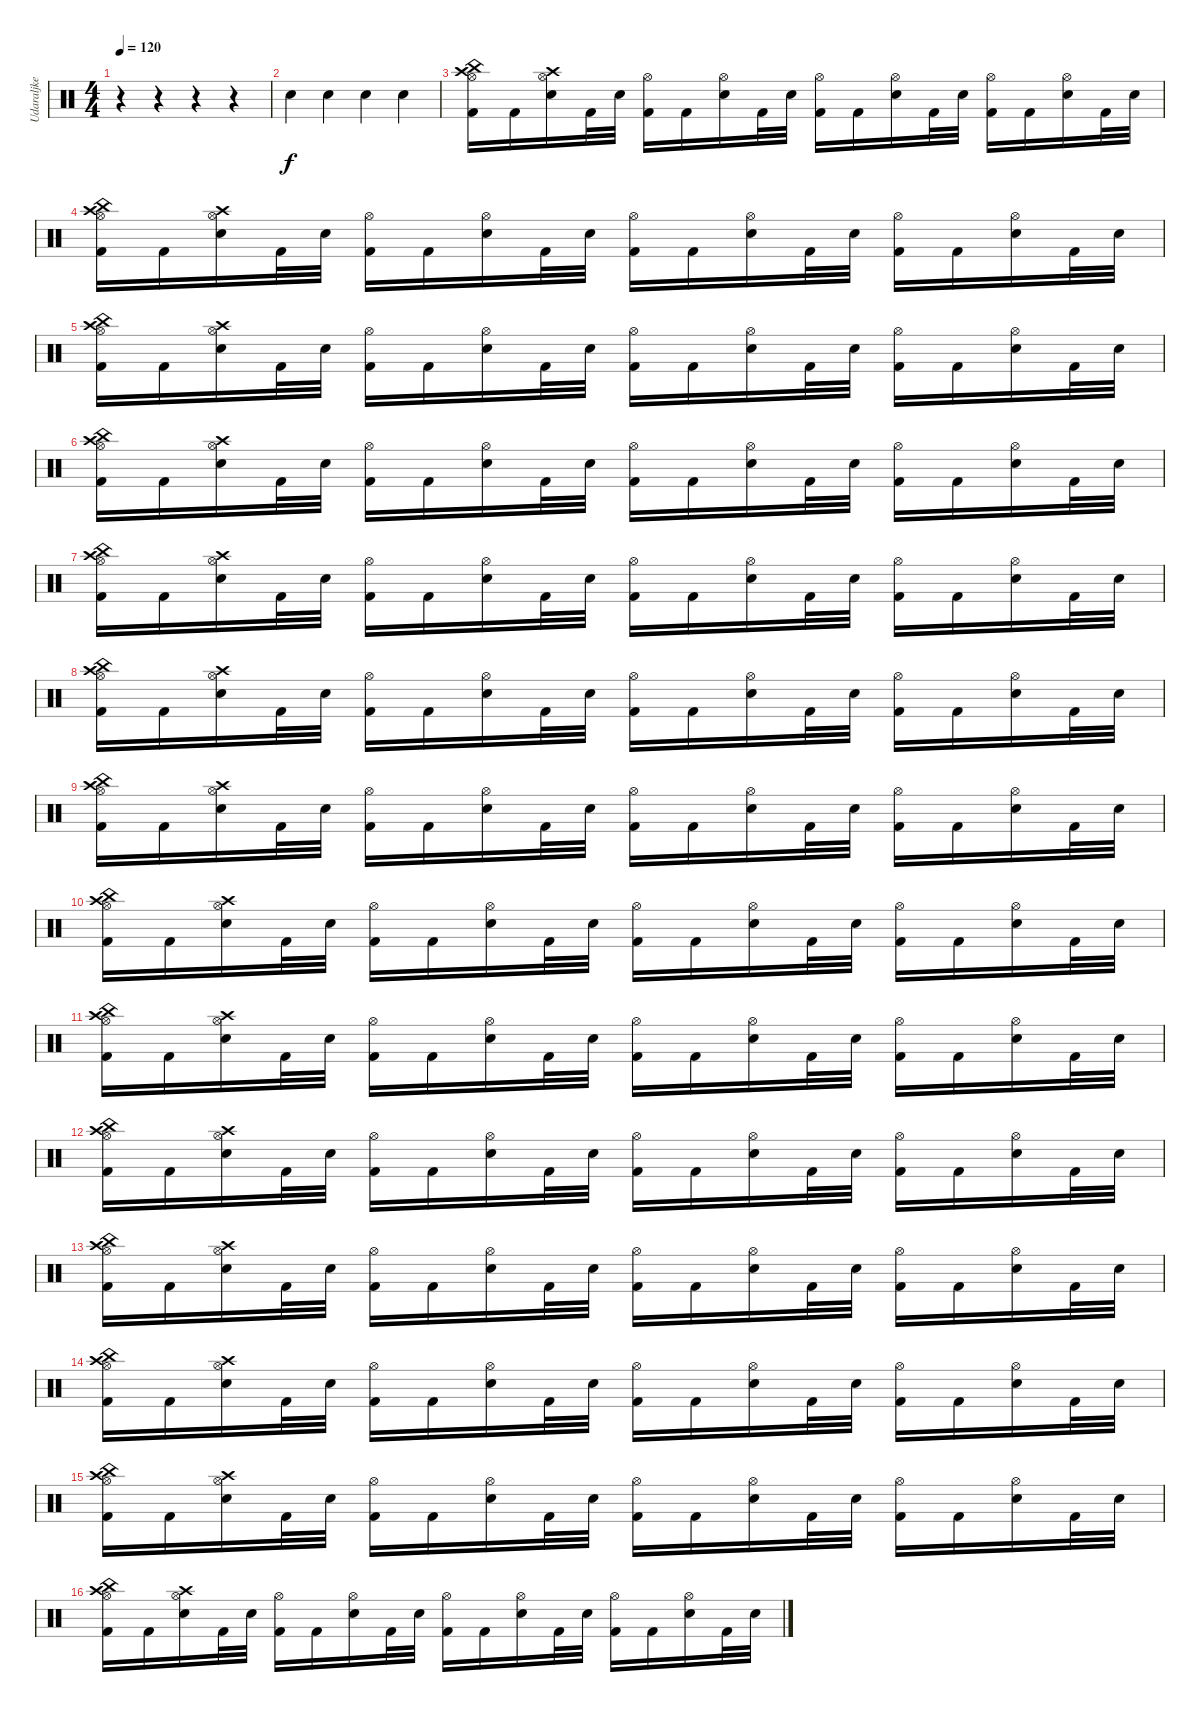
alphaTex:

\track ("Udaraljke" "Udaraljke") {instrument percussion}
\staff {score}
\articulation defaults
\ts (4 4)
\tempo 120
\clef neutral
\ks c
r.4{dy f} r.4 r.4 r.4 |
"Electric Snare (hit)".4 "Electric Snare (hit)".4 "Electric Snare (hit)".4 "Electric Snare (hit)".4 |
("China (hit)" "Crash high (hit)" "Hi-Hat (open)" "Kick (hit) 2").16 "Kick (hit) 2".16 ("Crash high (hit)" "Hi-Hat (open)" "Electric Snare (hit)").16 "Kick (hit) 2".32 "Electric Snare (hit)".32 ("Hi-Hat (open)" "Kick (hit) 2").16 "Kick (hit) 2".16 ("Hi-Hat (open)" "Electric Snare (hit)").16 "Kick (hit) 2".32 "Electric Snare (hit)".32 ("Hi-Hat (open)" "Kick (hit) 2").16 "Kick (hit) 2".16 ("Hi-Hat (open)" "Electric Snare (hit)").16 "Kick (hit) 2".32 "Electric Snare (hit)".32 ("Hi-Hat (open)" "Kick (hit) 2").16 "Kick (hit) 2".16 ("Hi-Hat (open)" "Electric Snare (hit)").16 "Kick (hit) 2".32 "Electric Snare (hit)".32 |
("China (hit)" "Crash high (hit)" "Hi-Hat (open)" "Kick (hit) 2").16 "Kick (hit) 2".16 ("Crash high (hit)" "Hi-Hat (open)" "Electric Snare (hit)").16 "Kick (hit) 2".32 "Electric Snare (hit)".32 ("Hi-Hat (open)" "Kick (hit) 2").16 "Kick (hit) 2".16 ("Hi-Hat (open)" "Electric Snare (hit)").16 "Kick (hit) 2".32 "Electric Snare (hit)".32 ("Hi-Hat (open)" "Kick (hit) 2").16 "Kick (hit) 2".16 ("Hi-Hat (open)" "Electric Snare (hit)").16 "Kick (hit) 2".32 "Electric Snare (hit)".32 ("Hi-Hat (open)" "Kick (hit) 2").16 "Kick (hit) 2".16 ("Hi-Hat (open)" "Electric Snare (hit)").16 "Kick (hit) 2".32 "Electric Snare (hit)".32 |
("China (hit)" "Crash high (hit)" "Hi-Hat (open)" "Kick (hit) 2").16 "Kick (hit) 2".16 ("Crash high (hit)" "Hi-Hat (open)" "Electric Snare (hit)").16 "Kick (hit) 2".32 "Electric Snare (hit)".32 ("Hi-Hat (open)" "Kick (hit) 2").16 "Kick (hit) 2".16 ("Hi-Hat (open)" "Electric Snare (hit)").16 "Kick (hit) 2".32 "Electric Snare (hit)".32 ("Hi-Hat (open)" "Kick (hit) 2").16 "Kick (hit) 2".16 ("Hi-Hat (open)" "Electric Snare (hit)").16 "Kick (hit) 2".32 "Electric Snare (hit)".32 ("Hi-Hat (open)" "Kick (hit) 2").16 "Kick (hit) 2".16 ("Hi-Hat (open)" "Electric Snare (hit)").16 "Kick (hit) 2".32 "Electric Snare (hit)".32 |
("China (hit)" "Crash high (hit)" "Hi-Hat (open)" "Kick (hit) 2").16 "Kick (hit) 2".16 ("Crash high (hit)" "Hi-Hat (open)" "Electric Snare (hit)").16 "Kick (hit) 2".32 "Electric Snare (hit)".32 ("Hi-Hat (open)" "Kick (hit) 2").16 "Kick (hit) 2".16 ("Hi-Hat (open)" "Electric Snare (hit)").16 "Kick (hit) 2".32 "Electric Snare (hit)".32 ("Hi-Hat (open)" "Kick (hit) 2").16 "Kick (hit) 2".16 ("Hi-Hat (open)" "Electric Snare (hit)").16 "Kick (hit) 2".32 "Electric Snare (hit)".32 ("Hi-Hat (open)" "Kick (hit) 2").16 "Kick (hit) 2".16 ("Hi-Hat (open)" "Electric Snare (hit)").16 "Kick (hit) 2".32 "Electric Snare (hit)".32 |
("China (hit)" "Crash high (hit)" "Hi-Hat (open)" "Kick (hit) 2").16 "Kick (hit) 2".16 ("Crash high (hit)" "Hi-Hat (open)" "Electric Snare (hit)").16 "Kick (hit) 2".32 "Electric Snare (hit)".32 ("Hi-Hat (open)" "Kick (hit) 2").16 "Kick (hit) 2".16 ("Hi-Hat (open)" "Electric Snare (hit)").16 "Kick (hit) 2".32 "Electric Snare (hit)".32 ("Hi-Hat (open)" "Kick (hit) 2").16 "Kick (hit) 2".16 ("Hi-Hat (open)" "Electric Snare (hit)").16 "Kick (hit) 2".32 "Electric Snare (hit)".32 ("Hi-Hat (open)" "Kick (hit) 2").16 "Kick (hit) 2".16 ("Hi-Hat (open)" "Electric Snare (hit)").16 "Kick (hit) 2".32 "Electric Snare (hit)".32 |
("China (hit)" "Crash high (hit)" "Hi-Hat (open)" "Kick (hit) 2").16 "Kick (hit) 2".16 ("Crash high (hit)" "Hi-Hat (open)" "Electric Snare (hit)").16 "Kick (hit) 2".32 "Electric Snare (hit)".32 ("Hi-Hat (open)" "Kick (hit) 2").16 "Kick (hit) 2".16 ("Hi-Hat (open)" "Electric Snare (hit)").16 "Kick (hit) 2".32 "Electric Snare (hit)".32 ("Hi-Hat (open)" "Kick (hit) 2").16 "Kick (hit) 2".16 ("Hi-Hat (open)" "Electric Snare (hit)").16 "Kick (hit) 2".32 "Electric Snare (hit)".32 ("Hi-Hat (open)" "Kick (hit) 2").16 "Kick (hit) 2".16 ("Hi-Hat (open)" "Electric Snare (hit)").16 "Kick (hit) 2".32 "Electric Snare (hit)".32 |
("China (hit)" "Crash high (hit)" "Hi-Hat (open)" "Kick (hit) 2").16 "Kick (hit) 2".16 ("Crash high (hit)" "Hi-Hat (open)" "Electric Snare (hit)").16 "Kick (hit) 2".32 "Electric Snare (hit)".32 ("Hi-Hat (open)" "Kick (hit) 2").16 "Kick (hit) 2".16 ("Hi-Hat (open)" "Electric Snare (hit)").16 "Kick (hit) 2".32 "Electric Snare (hit)".32 ("Hi-Hat (open)" "Kick (hit) 2").16 "Kick (hit) 2".16 ("Hi-Hat (open)" "Electric Snare (hit)").16 "Kick (hit) 2".32 "Electric Snare (hit)".32 ("Hi-Hat (open)" "Kick (hit) 2").16 "Kick (hit) 2".16 ("Hi-Hat (open)" "Electric Snare (hit)").16 "Kick (hit) 2".32 "Electric Snare (hit)".32 |
("China (hit)" "Crash high (hit)" "Hi-Hat (open)" "Kick (hit) 2").16 "Kick (hit) 2".16 ("Crash high (hit)" "Hi-Hat (open)" "Electric Snare (hit)").16 "Kick (hit) 2".32 "Electric Snare (hit)".32 ("Hi-Hat (open)" "Kick (hit) 2").16 "Kick (hit) 2".16 ("Hi-Hat (open)" "Electric Snare (hit)").16 "Kick (hit) 2".32 "Electric Snare (hit)".32 ("Hi-Hat (open)" "Kick (hit) 2").16 "Kick (hit) 2".16 ("Hi-Hat (open)" "Electric Snare (hit)").16 "Kick (hit) 2".32 "Electric Snare (hit)".32 ("Hi-Hat (open)" "Kick (hit) 2").16 "Kick (hit) 2".16 ("Hi-Hat (open)" "Electric Snare (hit)").16 "Kick (hit) 2".32 "Electric Snare (hit)".32 |
("China (hit)" "Crash high (hit)" "Hi-Hat (open)" "Kick (hit) 2").16 "Kick (hit) 2".16 ("Crash high (hit)" "Hi-Hat (open)" "Electric Snare (hit)").16 "Kick (hit) 2".32 "Electric Snare (hit)".32 ("Hi-Hat (open)" "Kick (hit) 2").16 "Kick (hit) 2".16 ("Hi-Hat (open)" "Electric Snare (hit)").16 "Kick (hit) 2".32 "Electric Snare (hit)".32 ("Hi-Hat (open)" "Kick (hit) 2").16 "Kick (hit) 2".16 ("Hi-Hat (open)" "Electric Snare (hit)").16 "Kick (hit) 2".32 "Electric Snare (hit)".32 ("Hi-Hat (open)" "Kick (hit) 2").16 "Kick (hit) 2".16 ("Hi-Hat (open)" "Electric Snare (hit)").16 "Kick (hit) 2".32 "Electric Snare (hit)".32 |
("China (hit)" "Crash high (hit)" "Hi-Hat (open)" "Kick (hit) 2").16 "Kick (hit) 2".16 ("Crash high (hit)" "Hi-Hat (open)" "Electric Snare (hit)").16 "Kick (hit) 2".32 "Electric Snare (hit)".32 ("Hi-Hat (open)" "Kick (hit) 2").16 "Kick (hit) 2".16 ("Hi-Hat (open)" "Electric Snare (hit)").16 "Kick (hit) 2".32 "Electric Snare (hit)".32 ("Hi-Hat (open)" "Kick (hit) 2").16 "Kick (hit) 2".16 ("Hi-Hat (open)" "Electric Snare (hit)").16 "Kick (hit) 2".32 "Electric Snare (hit)".32 ("Hi-Hat (open)" "Kick (hit) 2").16 "Kick (hit) 2".16 ("Hi-Hat (open)" "Electric Snare (hit)").16 "Kick (hit) 2".32 "Electric Snare (hit)".32 |
("China (hit)" "Crash high (hit)" "Hi-Hat (open)" "Kick (hit) 2").16 "Kick (hit) 2".16 ("Crash high (hit)" "Hi-Hat (open)" "Electric Snare (hit)").16 "Kick (hit) 2".32 "Electric Snare (hit)".32 ("Hi-Hat (open)" "Kick (hit) 2").16 "Kick (hit) 2".16 ("Hi-Hat (open)" "Electric Snare (hit)").16 "Kick (hit) 2".32 "Electric Snare (hit)".32 ("Hi-Hat (open)" "Kick (hit) 2").16 "Kick (hit) 2".16 ("Hi-Hat (open)" "Electric Snare (hit)").16 "Kick (hit) 2".32 "Electric Snare (hit)".32 ("Hi-Hat (open)" "Kick (hit) 2").16 "Kick (hit) 2".16 ("Hi-Hat (open)" "Electric Snare (hit)").16 "Kick (hit) 2".32 "Electric Snare (hit)".32 |
("China (hit)" "Crash high (hit)" "Hi-Hat (open)" "Kick (hit) 2").16 "Kick (hit) 2".16 ("Crash high (hit)" "Hi-Hat (open)" "Electric Snare (hit)").16 "Kick (hit) 2".32 "Electric Snare (hit)".32 ("Hi-Hat (open)" "Kick (hit) 2").16 "Kick (hit) 2".16 ("Hi-Hat (open)" "Electric Snare (hit)").16 "Kick (hit) 2".32 "Electric Snare (hit)".32 ("Hi-Hat (open)" "Kick (hit) 2").16 "Kick (hit) 2".16 ("Hi-Hat (open)" "Electric Snare (hit)").16 "Kick (hit) 2".32 "Electric Snare (hit)".32 ("Hi-Hat (open)" "Kick (hit) 2").16 "Kick (hit) 2".16 ("Hi-Hat (open)" "Electric Snare (hit)").16 "Kick (hit) 2".32 "Electric Snare (hit)".32 |
("China (hit)" "Crash high (hit)" "Hi-Hat (open)" "Kick (hit) 2").16 "Kick (hit) 2".16 ("Crash high (hit)" "Hi-Hat (open)" "Electric Snare (hit)").16 "Kick (hit) 2".32 "Electric Snare (hit)".32 ("Hi-Hat (open)" "Kick (hit) 2").16 "Kick (hit) 2".16 ("Hi-Hat (open)" "Electric Snare (hit)").16 "Kick (hit) 2".32 "Electric Snare (hit)".32 ("Hi-Hat (open)" "Kick (hit) 2").16 "Kick (hit) 2".16 ("Hi-Hat (open)" "Electric Snare (hit)").16 "Kick (hit) 2".32 "Electric Snare (hit)".32 ("Hi-Hat (open)" "Kick (hit) 2").16 "Kick (hit) 2".16 ("Hi-Hat (open)" "Electric Snare (hit)").16 "Kick (hit) 2".32 "Electric Snare (hit)".32 |
("China (hit)" "Crash high (hit)" "Hi-Hat (open)" "Kick (hit) 2").16 "Kick (hit) 2".16 ("Crash high (hit)" "Hi-Hat (open)" "Electric Snare (hit)").16 "Kick (hit) 2".32 "Electric Snare (hit)".32 ("Hi-Hat (open)" "Kick (hit) 2").16 "Kick (hit) 2".16 ("Hi-Hat (open)" "Electric Snare (hit)").16 "Kick (hit) 2".32 "Electric Snare (hit)".32 ("Hi-Hat (open)" "Kick (hit) 2").16 "Kick (hit) 2".16 ("Hi-Hat (open)" "Electric Snare (hit)").16 "Kick (hit) 2".32 "Electric Snare (hit)".32 ("Hi-Hat (open)" "Kick (hit) 2").16 "Kick (hit) 2".16 ("Hi-Hat (open)" "Electric Snare (hit)").16 "Kick (hit) 2".32 "Electric Snare (hit)".32
